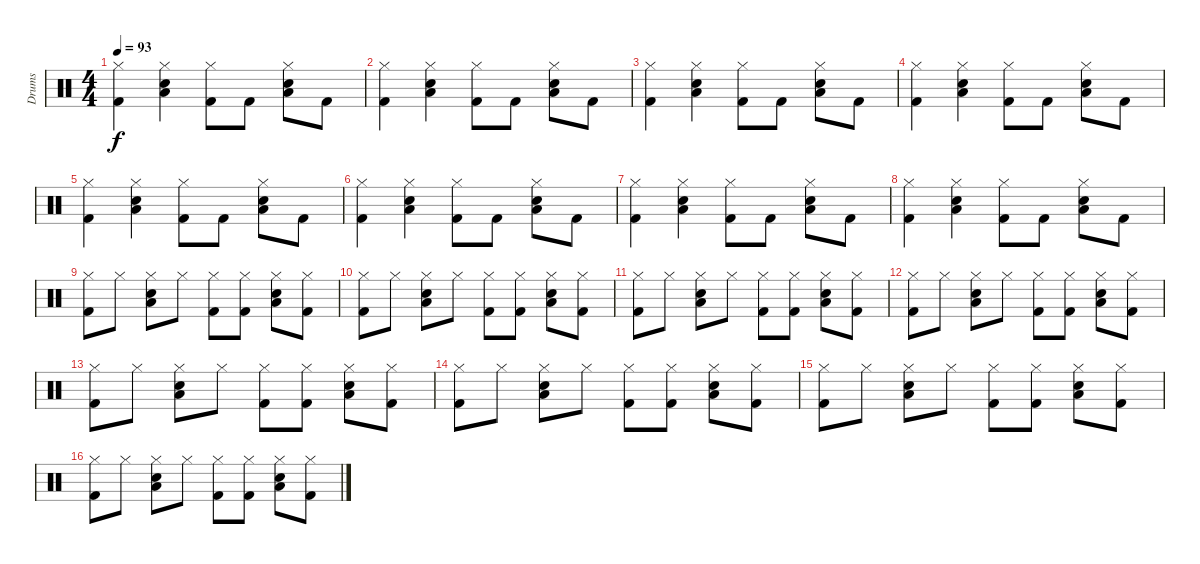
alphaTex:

\track ("Drums" "Drums") {instrument percussion}
\staff {score}
\articulation defaults
\ts (4 4)
\tempo 93
\clef neutral
\ks c
("Hi-Hat (closed)" "Kick (hit) 2").4{dy f} ("Hi-Hat (closed)" "Snare (hit) 2" "Low Tom (hit)").4 ("Hi-Hat (closed)" "Kick (hit) 2").8 "Kick (hit) 2".8 ("Hi-Hat (closed)" "Snare (hit) 2" "Low Tom (hit)").8 "Kick (hit) 2".8 |
("Hi-Hat (closed)" "Kick (hit) 2").4 ("Hi-Hat (closed)" "Snare (hit) 2" "Low Tom (hit)").4 ("Hi-Hat (closed)" "Kick (hit) 2").8 "Kick (hit) 2".8 ("Hi-Hat (closed)" "Snare (hit) 2" "Low Tom (hit)").8 "Kick (hit) 2".8 |
("Hi-Hat (closed)" "Kick (hit) 2").4 ("Hi-Hat (closed)" "Snare (hit) 2" "Low Tom (hit)").4 ("Hi-Hat (closed)" "Kick (hit) 2").8 "Kick (hit) 2".8 ("Hi-Hat (closed)" "Snare (hit) 2" "Low Tom (hit)").8 "Kick (hit) 2".8 |
("Hi-Hat (closed)" "Kick (hit) 2").4 ("Hi-Hat (closed)" "Snare (hit) 2" "Low Tom (hit)").4 ("Hi-Hat (closed)" "Kick (hit) 2").8 "Kick (hit) 2".8 ("Hi-Hat (closed)" "Snare (hit) 2" "Low Tom (hit)").8 "Kick (hit) 2".8 |
("Hi-Hat (closed)" "Kick (hit) 2").4 ("Hi-Hat (closed)" "Snare (hit) 2" "Low Tom (hit)").4 ("Hi-Hat (closed)" "Kick (hit) 2").8 "Kick (hit) 2".8 ("Hi-Hat (closed)" "Snare (hit) 2" "Low Tom (hit)").8 "Kick (hit) 2".8 |
("Hi-Hat (closed)" "Kick (hit) 2").4 ("Hi-Hat (closed)" "Snare (hit) 2" "Low Tom (hit)").4 ("Hi-Hat (closed)" "Kick (hit) 2").8 "Kick (hit) 2".8 ("Hi-Hat (closed)" "Snare (hit) 2" "Low Tom (hit)").8 "Kick (hit) 2".8 |
("Hi-Hat (closed)" "Kick (hit) 2").4 ("Hi-Hat (closed)" "Snare (hit) 2" "Low Tom (hit)").4 ("Hi-Hat (closed)" "Kick (hit) 2").8 "Kick (hit) 2".8 ("Hi-Hat (closed)" "Snare (hit) 2" "Low Tom (hit)").8 "Kick (hit) 2".8 |
("Hi-Hat (closed)" "Kick (hit) 2").4 ("Hi-Hat (closed)" "Snare (hit) 2" "Low Tom (hit)").4 ("Hi-Hat (closed)" "Kick (hit) 2").8 "Kick (hit) 2".8 ("Hi-Hat (closed)" "Snare (hit) 2" "Low Tom (hit)").8 "Kick (hit) 2".8 |
("Hi-Hat (closed)" "Kick (hit) 2").8 "Hi-Hat (closed)".8 ("Hi-Hat (closed)" "Snare (hit) 2" "Low Tom (hit)").8 "Hi-Hat (closed)".8 ("Hi-Hat (closed)" "Kick (hit) 2").8 ("Hi-Hat (closed)" "Kick (hit) 2").8 ("Hi-Hat (closed)" "Snare (hit) 2" "Low Tom (hit)").8 ("Hi-Hat (closed)" "Kick (hit) 2").8 |
("Hi-Hat (closed)" "Kick (hit) 2").8 "Hi-Hat (closed)".8 ("Hi-Hat (closed)" "Snare (hit) 2" "Low Tom (hit)").8 "Hi-Hat (closed)".8 ("Hi-Hat (closed)" "Kick (hit) 2").8 ("Hi-Hat (closed)" "Kick (hit) 2").8 ("Hi-Hat (closed)" "Snare (hit) 2" "Low Tom (hit)").8 ("Hi-Hat (closed)" "Kick (hit) 2").8 |
("Hi-Hat (closed)" "Kick (hit) 2").8 "Hi-Hat (closed)".8 ("Hi-Hat (closed)" "Snare (hit) 2" "Low Tom (hit)").8 "Hi-Hat (closed)".8 ("Hi-Hat (closed)" "Kick (hit) 2").8 ("Hi-Hat (closed)" "Kick (hit) 2").8 ("Hi-Hat (closed)" "Snare (hit) 2" "Low Tom (hit)").8 ("Hi-Hat (closed)" "Kick (hit) 2").8 |
("Hi-Hat (closed)" "Kick (hit) 2").8 "Hi-Hat (closed)".8 ("Hi-Hat (closed)" "Snare (hit) 2" "Low Tom (hit)").8 "Hi-Hat (closed)".8 ("Hi-Hat (closed)" "Kick (hit) 2").8 ("Hi-Hat (closed)" "Kick (hit) 2").8 ("Hi-Hat (closed)" "Snare (hit) 2" "Low Tom (hit)").8 ("Hi-Hat (closed)" "Kick (hit) 2").8 |
("Hi-Hat (closed)" "Kick (hit) 2").8 "Hi-Hat (closed)".8 ("Hi-Hat (closed)" "Snare (hit) 2" "Low Tom (hit)").8 "Hi-Hat (closed)".8 ("Hi-Hat (closed)" "Kick (hit) 2").8 ("Hi-Hat (closed)" "Kick (hit) 2").8 ("Hi-Hat (closed)" "Snare (hit) 2" "Low Tom (hit)").8 ("Hi-Hat (closed)" "Kick (hit) 2").8 |
("Hi-Hat (closed)" "Kick (hit) 2").8 "Hi-Hat (closed)".8 ("Hi-Hat (closed)" "Snare (hit) 2" "Low Tom (hit)").8 "Hi-Hat (closed)".8 ("Hi-Hat (closed)" "Kick (hit) 2").8 ("Hi-Hat (closed)" "Kick (hit) 2").8 ("Hi-Hat (closed)" "Snare (hit) 2" "Low Tom (hit)").8 ("Hi-Hat (closed)" "Kick (hit) 2").8 |
("Hi-Hat (closed)" "Kick (hit) 2").8 "Hi-Hat (closed)".8 ("Hi-Hat (closed)" "Snare (hit) 2" "Low Tom (hit)").8 "Hi-Hat (closed)".8 ("Hi-Hat (closed)" "Kick (hit) 2").8 ("Hi-Hat (closed)" "Kick (hit) 2").8 ("Hi-Hat (closed)" "Snare (hit) 2" "Low Tom (hit)").8 ("Hi-Hat (closed)" "Kick (hit) 2").8 |
("Hi-Hat (closed)" "Kick (hit) 2").8 "Hi-Hat (closed)".8 ("Hi-Hat (closed)" "Snare (hit) 2" "Low Tom (hit)").8 "Hi-Hat (closed)".8 ("Hi-Hat (closed)" "Kick (hit) 2").8 ("Hi-Hat (closed)" "Kick (hit) 2").8 ("Hi-Hat (closed)" "Snare (hit) 2" "Low Tom (hit)").8 ("Hi-Hat (closed)" "Kick (hit) 2").8
